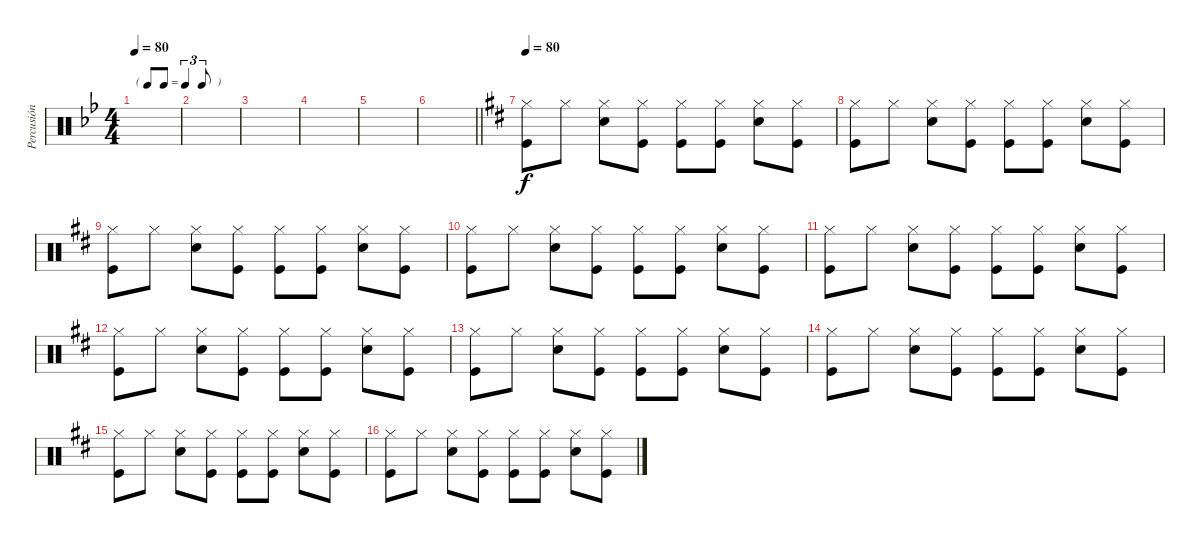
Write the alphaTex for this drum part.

\track ("Percusión" "Percusión") {instrument percussion}
\staff {score}
\articulation defaults
\ts (4 4)
\tf triplet8th
\tempo 80
\tempo 103
\tempo 80
\clef neutral
\ks bb
|
|
|
|
|
\barLineRight lightlight
|
\tempo 80
\ks d
("Hi-Hat (closed)" "Kick (hit)").8 "Hi-Hat (closed)".8 ("Hi-Hat (closed)" "Electric Snare (hit)").8 ("Hi-Hat (closed)" "Kick (hit)").8 ("Hi-Hat (closed)" "Kick (hit)").8 ("Hi-Hat (closed)" "Kick (hit)").8 ("Hi-Hat (closed)" "Electric Snare (hit)").8 ("Hi-Hat (closed)" "Kick (hit)").8 |
("Hi-Hat (closed)" "Kick (hit)").8 "Hi-Hat (closed)".8 ("Hi-Hat (closed)" "Electric Snare (hit)").8 ("Hi-Hat (closed)" "Kick (hit)").8 ("Hi-Hat (closed)" "Kick (hit)").8 ("Hi-Hat (closed)" "Kick (hit)").8 ("Hi-Hat (closed)" "Electric Snare (hit)").8 ("Hi-Hat (closed)" "Kick (hit)").8 |
("Hi-Hat (closed)" "Kick (hit)").8 "Hi-Hat (closed)".8 ("Hi-Hat (closed)" "Electric Snare (hit)").8 ("Hi-Hat (closed)" "Kick (hit)").8 ("Hi-Hat (closed)" "Kick (hit)").8 ("Hi-Hat (closed)" "Kick (hit)").8 ("Hi-Hat (closed)" "Electric Snare (hit)").8 ("Hi-Hat (closed)" "Kick (hit)").8 |
("Hi-Hat (closed)" "Kick (hit)").8 "Hi-Hat (closed)".8 ("Hi-Hat (closed)" "Electric Snare (hit)").8 ("Hi-Hat (closed)" "Kick (hit)").8 ("Hi-Hat (closed)" "Kick (hit)").8 ("Hi-Hat (closed)" "Kick (hit)").8 ("Hi-Hat (closed)" "Electric Snare (hit)").8 ("Hi-Hat (closed)" "Kick (hit)").8 |
("Hi-Hat (closed)" "Kick (hit)").8 "Hi-Hat (closed)".8 ("Hi-Hat (closed)" "Electric Snare (hit)").8 ("Hi-Hat (closed)" "Kick (hit)").8 ("Hi-Hat (closed)" "Kick (hit)").8 ("Hi-Hat (closed)" "Kick (hit)").8 ("Hi-Hat (closed)" "Electric Snare (hit)").8 ("Hi-Hat (closed)" "Kick (hit)").8 |
("Hi-Hat (closed)" "Kick (hit)").8 "Hi-Hat (closed)".8 ("Hi-Hat (closed)" "Electric Snare (hit)").8 ("Hi-Hat (closed)" "Kick (hit)").8 ("Hi-Hat (closed)" "Kick (hit)").8 ("Hi-Hat (closed)" "Kick (hit)").8 ("Hi-Hat (closed)" "Electric Snare (hit)").8 ("Hi-Hat (closed)" "Kick (hit)").8 |
("Hi-Hat (closed)" "Kick (hit)").8 "Hi-Hat (closed)".8 ("Hi-Hat (closed)" "Electric Snare (hit)").8 ("Hi-Hat (closed)" "Kick (hit)").8 ("Hi-Hat (closed)" "Kick (hit)").8 ("Hi-Hat (closed)" "Kick (hit)").8 ("Hi-Hat (closed)" "Electric Snare (hit)").8 ("Hi-Hat (closed)" "Kick (hit)").8 |
("Hi-Hat (closed)" "Kick (hit)").8 "Hi-Hat (closed)".8 ("Hi-Hat (closed)" "Electric Snare (hit)").8 ("Hi-Hat (closed)" "Kick (hit)").8 ("Hi-Hat (closed)" "Kick (hit)").8 ("Hi-Hat (closed)" "Kick (hit)").8 ("Hi-Hat (closed)" "Electric Snare (hit)").8 ("Hi-Hat (closed)" "Kick (hit)").8 |
("Hi-Hat (closed)" "Kick (hit)").8 "Hi-Hat (closed)".8 ("Hi-Hat (closed)" "Electric Snare (hit)").8 ("Hi-Hat (closed)" "Kick (hit)").8 ("Hi-Hat (closed)" "Kick (hit)").8 ("Hi-Hat (closed)" "Kick (hit)").8 ("Hi-Hat (closed)" "Electric Snare (hit)").8 ("Hi-Hat (closed)" "Kick (hit)").8 |
("Hi-Hat (closed)" "Kick (hit)").8 "Hi-Hat (closed)".8 ("Hi-Hat (closed)" "Electric Snare (hit)").8 ("Hi-Hat (closed)" "Kick (hit)").8 ("Hi-Hat (closed)" "Kick (hit)").8 ("Hi-Hat (closed)" "Kick (hit)").8 ("Hi-Hat (closed)" "Electric Snare (hit)").8 ("Hi-Hat (closed)" "Kick (hit)").8
